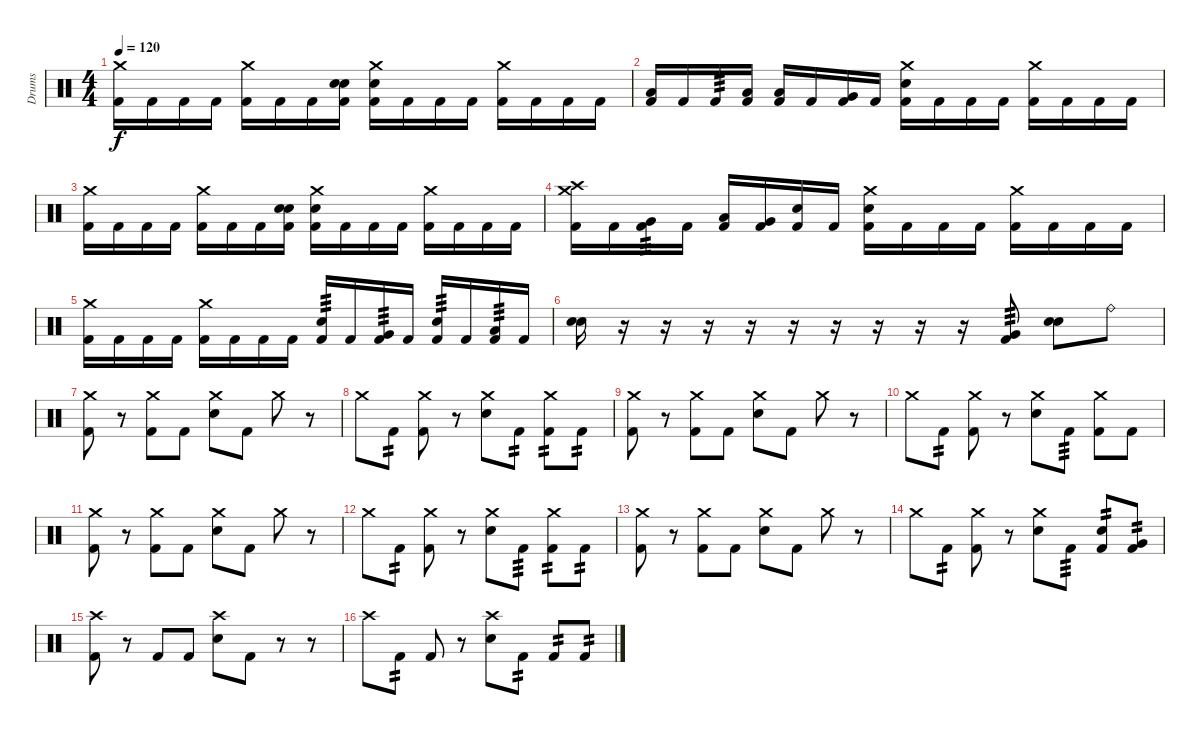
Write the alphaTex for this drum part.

\track ("Drums" "Drums") {instrument percussion}
\staff {score}
\articulation defaults
\ts (4 4)
\tempo 120
\clef neutral
\ks c
("Crash medium (hit)" "Kick (hit) 2").16{dy f} "Kick (hit) 2".16 "Kick (hit) 2".16 "Kick (hit) 2".16 ("Crash medium (hit)" "Kick (hit) 2").16 "Kick (hit) 2".16 "Kick (hit) 2".16 ("Electric Snare (hit)" "Electric Snare (hit)" "Kick (hit) 2").16 ("Crash medium (hit)" "Electric Snare (hit)" "Kick (hit) 2").16 "Kick (hit) 2".16 "Kick (hit) 2".16 "Kick (hit) 2".16 ("Crash medium (hit)" "Kick (hit) 2").16 "Kick (hit) 2".16 "Kick (hit) 2".16 "Kick (hit) 2".16 |
("Low Floor Tom (hit)" "Kick (hit) 2").16 "Kick (hit) 2".16 "Kick (hit) 2".16{tp 3} ("Low Floor Tom (hit)" "Kick (hit) 2").16 ("Low Floor Tom (hit)" "Kick (hit) 2").16 "Kick (hit) 2".16 ("Very Low Tom (hit)" "Kick (hit) 2").16 "Kick (hit) 2".16 ("Crash medium (hit)" "Electric Snare (hit)" "Kick (hit) 2").16 "Kick (hit) 2".16 "Kick (hit) 2".16 "Kick (hit) 2".16 ("Crash medium (hit)" "Kick (hit) 2").16 "Kick (hit) 2".16 "Kick (hit) 2".16 "Kick (hit) 2".16 |
("Crash medium (hit)" "Kick (hit) 2").16 "Kick (hit) 2".16 "Kick (hit) 2".16 "Kick (hit) 2".16 ("Crash medium (hit)" "Kick (hit) 2").16 "Kick (hit) 2".16 "Kick (hit) 2".16 ("Electric Snare (hit)" "Electric Snare (hit)" "Kick (hit) 2").16 ("Crash medium (hit)" "Electric Snare (hit)" "Kick (hit) 2").16 "Kick (hit) 2".16 "Kick (hit) 2".16 "Kick (hit) 2".16 ("Crash medium (hit)" "Kick (hit) 2").16 "Kick (hit) 2".16 "Kick (hit) 2".16 "Kick (hit) 2".16 |
("Crash medium (hit)" "Crash high (hit)" "Kick (hit) 2").16 "Kick (hit) 2".16 ("Very Low Tom (hit)" "Kick (hit) 2").16{tp 3} "Kick (hit) 2".16 ("Low Tom (hit)" "Kick (hit) 2").16 ("Very Low Tom (hit)" "Kick (hit) 2").16 ("Electric Snare (hit)" "Kick (hit) 2").16 "Kick (hit) 2".16 ("Crash medium (hit)" "Electric Snare (hit)" "Kick (hit) 2").16 "Kick (hit) 2".16 "Kick (hit) 2".16 "Kick (hit) 2".16 ("Crash medium (hit)" "Kick (hit) 2").16 "Kick (hit) 2".16 "Kick (hit) 2".16 "Kick (hit) 2".16 |
("Crash medium (hit)" "Kick (hit) 2").16 "Kick (hit) 2".16 "Kick (hit) 2".16 "Kick (hit) 2".16 ("Crash medium (hit)" "Kick (hit) 2").16 "Kick (hit) 2".16 "Kick (hit) 2".16 "Kick (hit) 2".16 ("Electric Snare (hit)" "Kick (hit) 2").16{tp 3} "Kick (hit) 2".16 ("Very Low Tom (hit)" "Kick (hit) 2").16{tp 3} "Kick (hit) 2".16 ("Electric Snare (hit)" "Kick (hit) 2").16{tp 3} "Kick (hit) 2".16 ("Low Floor Tom (hit)" "Kick (hit) 2").16{tp 3} "Kick (hit) 2".16 |
("Electric Snare (hit)" "Electric Snare (hit)").16 r.16 r.16 r.16 r.16 r.16 r.16 r.16 r.16 r.16 ("Very Low Tom (hit)" "Kick (hit) 2").8{tp 3} ("Electric Snare (hit)" "Electric Snare (hit)").8 "Ride (bell)".8 |
("Crash medium (hit)" "Kick (hit) 2").8 r.8 ("Crash medium (hit)" "Kick (hit) 2").8 "Kick (hit) 2".8 ("Crash medium (hit)" "Electric Snare (hit)").8 "Kick (hit) 2".8 "Crash medium (hit)".8 r.8 |
"Crash medium (hit)".8 "Kick (hit) 2".8{tp 2} ("Crash medium (hit)" "Kick (hit) 2").8 r.8 ("Crash medium (hit)" "Electric Snare (hit)").8 "Kick (hit) 2".8{tp 2} ("Crash medium (hit)" "Kick (hit) 2").8{tp 2} "Kick (hit) 2".8{tp 2} |
("Crash medium (hit)" "Kick (hit) 2").8 r.8 ("Crash medium (hit)" "Kick (hit) 2").8 "Kick (hit) 2".8 ("Crash medium (hit)" "Electric Snare (hit)").8 "Kick (hit) 2".8 "Crash medium (hit)".8 r.8 |
"Crash medium (hit)".8 "Kick (hit) 2".8{tp 2} ("Crash medium (hit)" "Kick (hit) 2").8 r.8 ("Crash medium (hit)" "Electric Snare (hit)").8 "Kick (hit) 2".8{tp 3} ("Crash medium (hit)" "Kick (hit) 2").8 "Kick (hit) 2".8 |
("Crash medium (hit)" "Kick (hit) 2").8 r.8 ("Crash medium (hit)" "Kick (hit) 2").8 "Kick (hit) 2".8 ("Crash medium (hit)" "Electric Snare (hit)").8 "Kick (hit) 2".8 "Crash medium (hit)".8 r.8 |
"Crash medium (hit)".8 "Kick (hit) 2".8{tp 2} ("Crash medium (hit)" "Kick (hit) 2").8 r.8 ("Crash medium (hit)" "Electric Snare (hit)").8 "Kick (hit) 2".8{tp 3} ("Crash medium (hit)" "Kick (hit) 2").8{tp 2} "Kick (hit) 2".8{tp 2} |
("Crash medium (hit)" "Kick (hit) 2").8 r.8 ("Crash medium (hit)" "Kick (hit) 2").8 "Kick (hit) 2".8 ("Crash medium (hit)" "Electric Snare (hit)").8 "Kick (hit) 2".8 "Crash medium (hit)".8 r.8 |
"Crash medium (hit)".8 "Kick (hit) 2".8{tp 2} ("Crash medium (hit)" "Kick (hit) 2").8 r.8 ("Crash medium (hit)" "Electric Snare (hit)").8 "Kick (hit) 2".8{tp 3} ("Electric Snare (hit)" "Kick (hit) 2").8{tp 2} ("Very Low Tom (hit)" "Kick (hit) 2").8{tp 2} |
("Crash high (hit)" "Kick (hit) 2").8 r.8 "Kick (hit) 2".8 "Kick (hit) 2".8 ("Crash high (hit)" "Electric Snare (hit)").8 "Kick (hit) 2".8 r.8 r.8 |
"Crash high (hit)".8 "Kick (hit) 2".8{tp 2} "Kick (hit) 2".8 r.8 ("Crash high (hit)" "Electric Snare (hit)").8 "Kick (hit) 2".8{tp 2} "Kick (hit) 2".8{tp 2} "Kick (hit) 2".8{tp 2}
